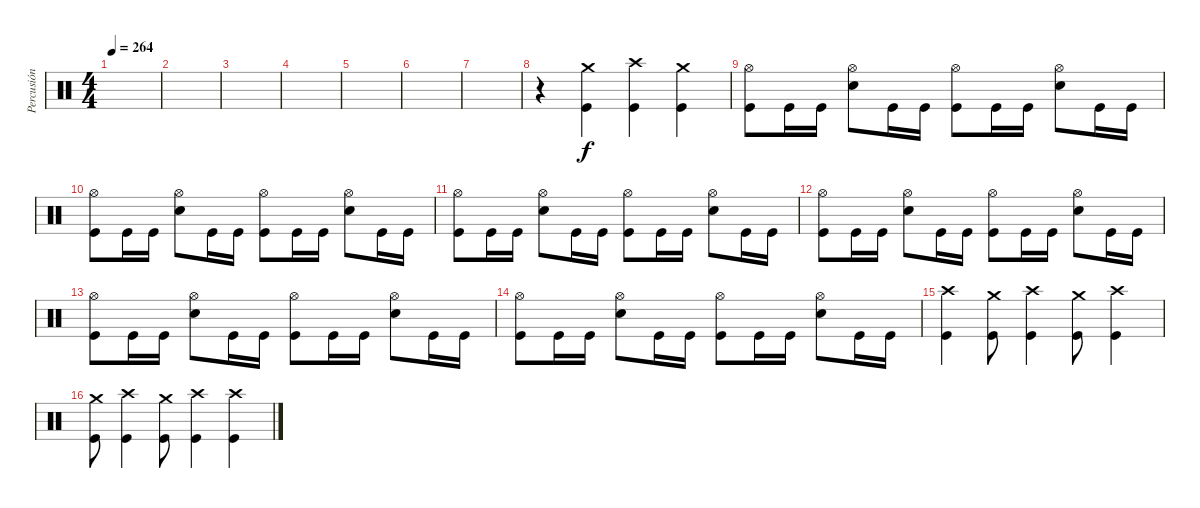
\track ("Percusión" "Percusión") {instrument percussion}
\staff {score}
\articulation defaults
\ts (4 4)
\tempo 264
\clef neutral
\ks c
|
|
|
|
|
|
|
r.4 ("Crash medium (hit)" "Kick (hit)").4 ("Crash high (hit)" "Kick (hit)").4 ("Crash medium (hit)" "Kick (hit)").4 |
("Hi-Hat (open)" "Kick (hit)").8 "Kick (hit)".16 "Kick (hit)".16 ("Hi-Hat (open)" "Snare (hit) 2").8 "Kick (hit)".16 "Kick (hit)".16 ("Hi-Hat (open)" "Kick (hit)").8 "Kick (hit)".16 "Kick (hit)".16 ("Hi-Hat (open)" "Snare (hit) 2").8 "Kick (hit)".16 "Kick (hit)".16 |
("Hi-Hat (open)" "Kick (hit)").8 "Kick (hit)".16 "Kick (hit)".16 ("Hi-Hat (open)" "Snare (hit) 2").8 "Kick (hit)".16 "Kick (hit)".16 ("Hi-Hat (open)" "Kick (hit)").8 "Kick (hit)".16 "Kick (hit)".16 ("Hi-Hat (open)" "Snare (hit) 2").8 "Kick (hit)".16 "Kick (hit)".16 |
("Hi-Hat (open)" "Kick (hit)").8 "Kick (hit)".16 "Kick (hit)".16 ("Hi-Hat (open)" "Snare (hit) 2").8 "Kick (hit)".16 "Kick (hit)".16 ("Hi-Hat (open)" "Kick (hit)").8 "Kick (hit)".16 "Kick (hit)".16 ("Hi-Hat (open)" "Snare (hit) 2").8 "Kick (hit)".16 "Kick (hit)".16 |
("Hi-Hat (open)" "Kick (hit)").8 "Kick (hit)".16 "Kick (hit)".16 ("Hi-Hat (open)" "Snare (hit) 2").8 "Kick (hit)".16 "Kick (hit)".16 ("Hi-Hat (open)" "Kick (hit)").8 "Kick (hit)".16 "Kick (hit)".16 ("Hi-Hat (open)" "Snare (hit) 2").8 "Kick (hit)".16 "Kick (hit)".16 |
("Hi-Hat (open)" "Kick (hit)").8 "Kick (hit)".16 "Kick (hit)".16 ("Hi-Hat (open)" "Snare (hit) 2").8 "Kick (hit)".16 "Kick (hit)".16 ("Hi-Hat (open)" "Kick (hit)").8 "Kick (hit)".16 "Kick (hit)".16 ("Hi-Hat (open)" "Snare (hit) 2").8 "Kick (hit)".16 "Kick (hit)".16 |
("Hi-Hat (open)" "Kick (hit)").8 "Kick (hit)".16 "Kick (hit)".16 ("Hi-Hat (open)" "Snare (hit) 2").8 "Kick (hit)".16 "Kick (hit)".16 ("Hi-Hat (open)" "Kick (hit)").8 "Kick (hit)".16 "Kick (hit)".16 ("Hi-Hat (open)" "Snare (hit) 2").8 "Kick (hit)".16 "Kick (hit)".16 |
("Crash high (hit)" "Kick (hit)").4 ("Crash medium (hit)" "Kick (hit)").8 ("Crash high (hit)" "Kick (hit)").4 ("Crash medium (hit)" "Kick (hit)").8 ("Crash high (hit)" "Kick (hit)").4 |
("Crash medium (hit)" "Kick (hit)").8 ("Crash high (hit)" "Kick (hit)").4 ("Crash medium (hit)" "Kick (hit)").8 ("Crash high (hit)" "Kick (hit)").4 ("Crash high (hit)" "Kick (hit)").4
